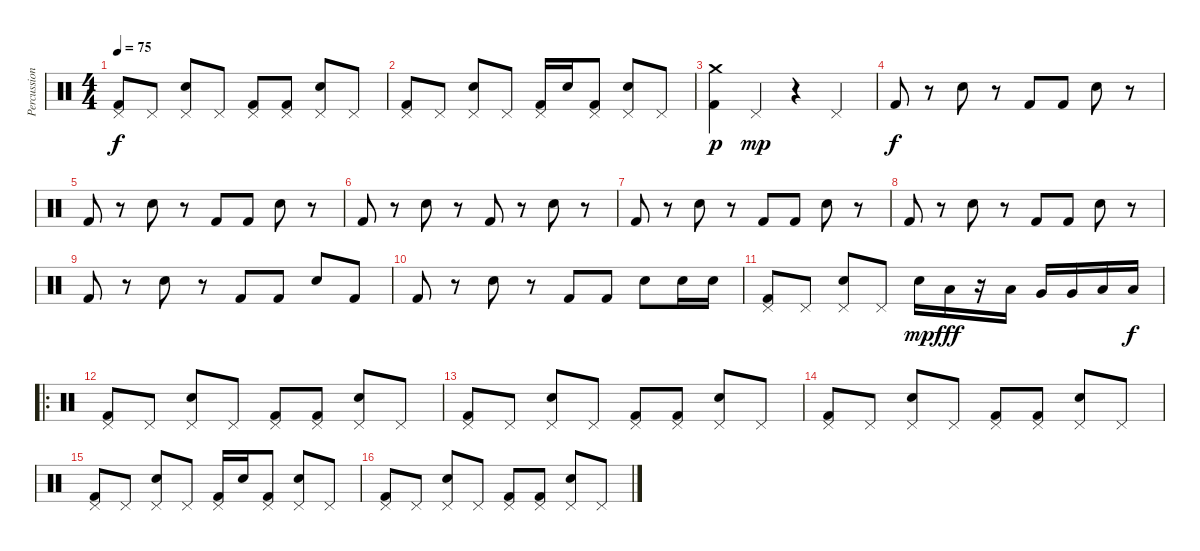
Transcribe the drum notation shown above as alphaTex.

\track ("Percussion" "Percussion") {instrument percussion}
\staff {score}
\articulation defaults
\ts (4 4)
\tempo 75
\clef neutral
\ks c
("Pedal Hi-Hat (hit)" "Kick (hit) 2").8{dy f} "Pedal Hi-Hat (hit)".8 ("Pedal Hi-Hat (hit)" "Snare (hit) 2").8 "Pedal Hi-Hat (hit)".8 ("Pedal Hi-Hat (hit)" "Kick (hit) 2").8 ("Pedal Hi-Hat (hit)" "Kick (hit) 2").8 ("Pedal Hi-Hat (hit)" "Snare (hit) 2").8 "Pedal Hi-Hat (hit)".8 |
("Pedal Hi-Hat (hit)" "Kick (hit) 2").8 "Pedal Hi-Hat (hit)".8 ("Pedal Hi-Hat (hit)" "Snare (hit) 2").8 "Pedal Hi-Hat (hit)".8 ("Pedal Hi-Hat (hit)" "Kick (hit) 2").16 "Snare (hit) 2".16 ("Pedal Hi-Hat (hit)" "Kick (hit) 2").8 ("Pedal Hi-Hat (hit)" "Snare (hit) 2").8 "Pedal Hi-Hat (hit)".8 |
("Crash medium (hit)" "Kick (hit) 2").4{dy p} "Pedal Hi-Hat (hit)".4{dy mp} r.4 "Pedal Hi-Hat (hit)".4 |
"Kick (hit) 2".8{dy f} r.8 "Snare (hit) 2".8 r.8 "Kick (hit) 2".8 "Kick (hit) 2".8 "Snare (hit) 2".8 r.8 |
"Kick (hit) 2".8 r.8 "Snare (hit) 2".8 r.8 "Kick (hit) 2".8 "Kick (hit) 2".8 "Snare (hit) 2".8 r.8 |
"Kick (hit) 2".8 r.8 "Snare (hit) 2".8 r.8 "Kick (hit) 2".8 r.8 "Snare (hit) 2".8 r.8 |
"Kick (hit) 2".8 r.8 "Snare (hit) 2".8 r.8 "Kick (hit) 2".8 "Kick (hit) 2".8 "Snare (hit) 2".8 r.8 |
"Kick (hit) 2".8 r.8 "Snare (hit) 2".8 r.8 "Kick (hit) 2".8 "Kick (hit) 2".8 "Snare (hit) 2".8 r.8 |
"Kick (hit) 2".8 r.8 "Snare (hit) 2".8 r.8 "Kick (hit) 2".8 "Kick (hit) 2".8 "Snare (hit) 2".8 "Kick (hit) 2".8 |
"Kick (hit) 2".8 r.8 "Snare (hit) 2".8 r.8 "Kick (hit) 2".8 "Kick (hit) 2".8 "Snare (hit) 2".8 "Snare (hit) 2".16 "Snare (hit) 2".16 |
("Pedal Hi-Hat (hit)" "Kick (hit) 2").8 "Pedal Hi-Hat (hit)".8 ("Pedal Hi-Hat (hit)" "Snare (hit) 2").8 "Pedal Hi-Hat (hit)".8 "Snare (hit) 2".16{dy mp} "Low Tom (hit)".16{dy fff} r.16 "Low Tom (hit)".16 "Very Low Tom (hit)".16 "Very Low Tom (hit)".16 "Low Floor Tom (hit)".16 "Low Floor Tom (hit)".16{dy f} |
\ro
("Pedal Hi-Hat (hit)" "Kick (hit) 2").8 "Pedal Hi-Hat (hit)".8 ("Pedal Hi-Hat (hit)" "Snare (hit) 2").8 "Pedal Hi-Hat (hit)".8 ("Pedal Hi-Hat (hit)" "Kick (hit) 2").8 ("Pedal Hi-Hat (hit)" "Kick (hit) 2").8 ("Pedal Hi-Hat (hit)" "Snare (hit) 2").8 "Pedal Hi-Hat (hit)".8 |
("Pedal Hi-Hat (hit)" "Kick (hit) 2").8 "Pedal Hi-Hat (hit)".8 ("Pedal Hi-Hat (hit)" "Snare (hit) 2").8 "Pedal Hi-Hat (hit)".8 ("Pedal Hi-Hat (hit)" "Kick (hit) 2").8 ("Pedal Hi-Hat (hit)" "Kick (hit) 2").8 ("Pedal Hi-Hat (hit)" "Snare (hit) 2").8 "Pedal Hi-Hat (hit)".8 |
("Pedal Hi-Hat (hit)" "Kick (hit) 2").8 "Pedal Hi-Hat (hit)".8 ("Pedal Hi-Hat (hit)" "Snare (hit) 2").8 "Pedal Hi-Hat (hit)".8 ("Pedal Hi-Hat (hit)" "Kick (hit) 2").8 ("Pedal Hi-Hat (hit)" "Kick (hit) 2").8 ("Pedal Hi-Hat (hit)" "Snare (hit) 2").8 "Pedal Hi-Hat (hit)".8 |
("Pedal Hi-Hat (hit)" "Kick (hit) 2").8 "Pedal Hi-Hat (hit)".8 ("Pedal Hi-Hat (hit)" "Snare (hit) 2").8 "Pedal Hi-Hat (hit)".8 ("Pedal Hi-Hat (hit)" "Kick (hit) 2").16 "Snare (hit) 2".16 ("Pedal Hi-Hat (hit)" "Kick (hit) 2").8 ("Pedal Hi-Hat (hit)" "Snare (hit) 2").8 "Pedal Hi-Hat (hit)".8 |
("Pedal Hi-Hat (hit)" "Kick (hit) 2").8 "Pedal Hi-Hat (hit)".8 ("Pedal Hi-Hat (hit)" "Snare (hit) 2").8 "Pedal Hi-Hat (hit)".8 ("Pedal Hi-Hat (hit)" "Kick (hit) 2").8 ("Pedal Hi-Hat (hit)" "Kick (hit) 2").8 ("Pedal Hi-Hat (hit)" "Snare (hit) 2").8 "Pedal Hi-Hat (hit)".8
